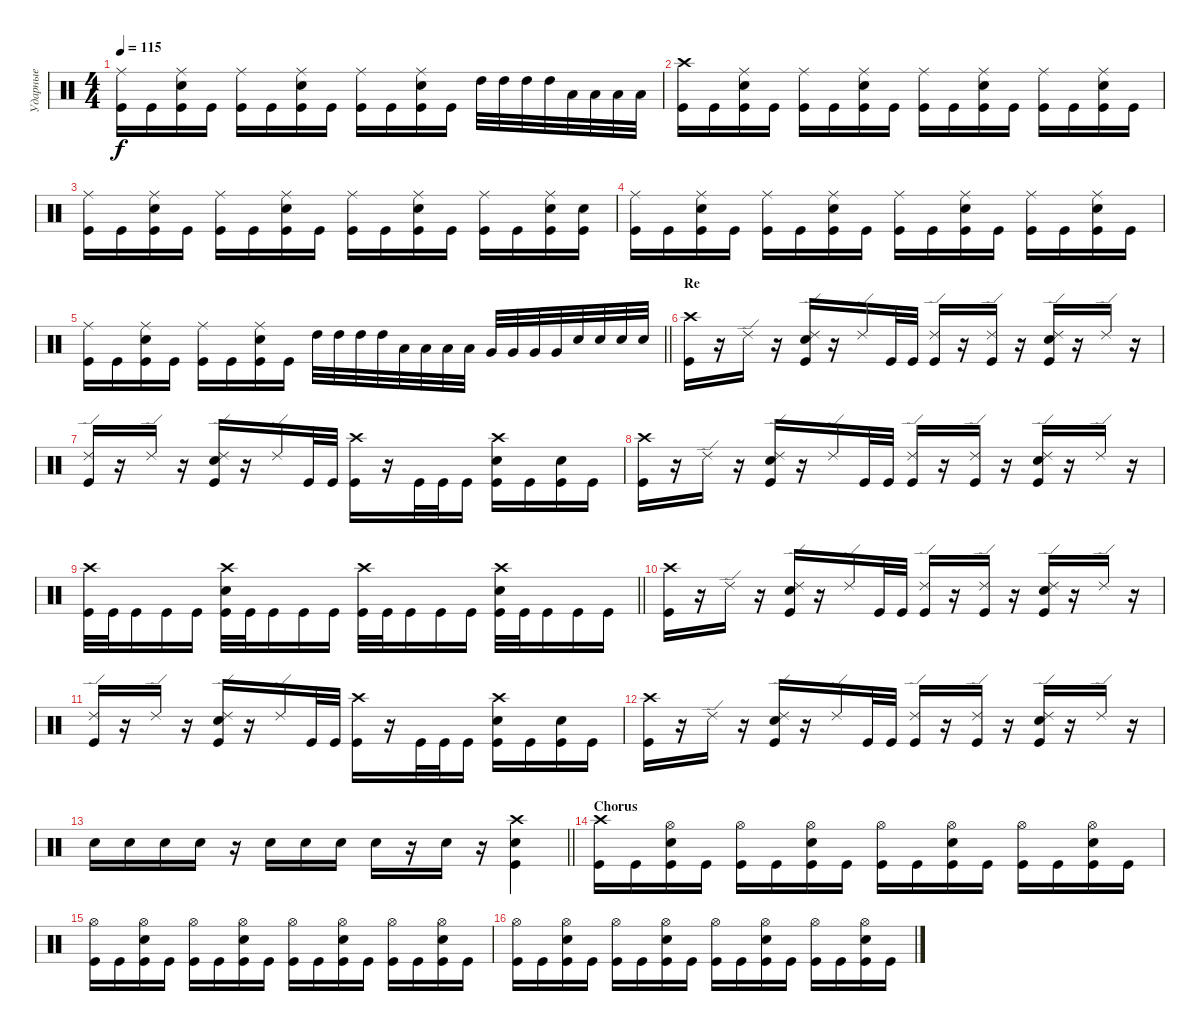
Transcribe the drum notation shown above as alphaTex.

\track ("Ударные" "Ударные") {instrument percussion}
\staff {score}
\articulation defaults
\ts (4 4)
\tempo 115
\clef neutral
\ks c
("Ride (middle)" "Kick (hit)").16{dy f} "Kick (hit)".16 ("Ride (middle)" "Snare (hit) 2" "Kick (hit)").16 "Kick (hit)".16 ("Ride (middle)" "Kick (hit)").16 "Kick (hit)".16 ("Ride (middle)" "Snare (hit) 2" "Kick (hit)").16 "Kick (hit)".16 ("Ride (middle)" "Kick (hit)").16 "Kick (hit)".16 ("Ride (middle)" "Snare (hit) 2" "Kick (hit)").16 "Kick (hit)".16 "High Tom (hit)".32 "High Tom (hit)".32 "High Tom (hit)".32 "High Tom (hit)".32 "Low Tom (hit)".32 "Low Tom (hit)".32 "Low Tom (hit)".32 "Low Tom (hit)".32 |
("Crash high (hit)" "Kick (hit)").16 "Kick (hit)".16 ("Ride (middle)" "Snare (hit) 2" "Kick (hit)").16 "Kick (hit)".16 ("Ride (middle)" "Kick (hit)").16 "Kick (hit)".16 ("Ride (middle)" "Snare (hit) 2" "Kick (hit)").16 "Kick (hit)".16 ("Ride (middle)" "Kick (hit)").16 "Kick (hit)".16 ("Ride (middle)" "Snare (hit) 2" "Kick (hit)").16 "Kick (hit)".16 ("Ride (middle)" "Kick (hit)").16 "Kick (hit)".16 ("Ride (middle)" "Snare (hit) 2" "Kick (hit)").16 "Kick (hit)".16 |
("Ride (middle)" "Kick (hit)").16 "Kick (hit)".16 ("Ride (middle)" "Snare (hit) 2" "Kick (hit)").16 "Kick (hit)".16 ("Ride (middle)" "Kick (hit)").16 "Kick (hit)".16 ("Ride (middle)" "Snare (hit) 2" "Kick (hit)").16 "Kick (hit)".16 ("Ride (middle)" "Kick (hit)").16 "Kick (hit)".16 ("Ride (middle)" "Snare (hit) 2" "Kick (hit)").16 "Kick (hit)".16 ("Ride (middle)" "Kick (hit)").16 "Kick (hit)".16 ("Ride (middle)" "Snare (hit) 2" "Kick (hit)").16 ("Snare (hit) 2" "Kick (hit)").16 |
("Ride (middle)" "Kick (hit)").16 "Kick (hit)".16 ("Ride (middle)" "Snare (hit) 2" "Kick (hit)").16 "Kick (hit)".16 ("Ride (middle)" "Kick (hit)").16 "Kick (hit)".16 ("Ride (middle)" "Snare (hit) 2" "Kick (hit)").16 "Kick (hit)".16 ("Ride (middle)" "Kick (hit)").16 "Kick (hit)".16 ("Ride (middle)" "Snare (hit) 2" "Kick (hit)").16 "Kick (hit)".16 ("Ride (middle)" "Kick (hit)").16 "Kick (hit)".16 ("Ride (middle)" "Snare (hit) 2" "Kick (hit)").16 "Kick (hit)".16 |
\barLineRight lightlight
("Ride (middle)" "Kick (hit)").16 "Kick (hit)".16 ("Ride (middle)" "Snare (hit) 2" "Kick (hit)").16 "Kick (hit)".16 ("Ride (middle)" "Kick (hit)").16 "Kick (hit)".16 ("Ride (middle)" "Snare (hit) 2" "Kick (hit)").16 "Kick (hit)".16 "High Tom (hit)".32 "High Tom (hit)".32 "High Tom (hit)".32 "High Tom (hit)".32 "Low Tom (hit)".32 "Low Tom (hit)".32 "Low Tom (hit)".32 "Low Tom (hit)".32 "Very Low Tom (hit)".32 "Very Low Tom (hit)".32 "Very Low Tom (hit)".32 "Very Low Tom (hit)".32 "Snare (hit) 2".32 "Snare (hit) 2".32 "Snare (hit) 2".32 "Snare (hit) 2".32 |
\section ("" "Re")
("Crash high (hit)" "Kick (hit)").16 r.16 "Ride (edge) 2".16 r.16 ("Ride (edge) 2" "Snare (hit) 2" "Kick (hit)").16 r.16 "Ride (edge) 2".16 "Kick (hit)".32 "Kick (hit)".32 ("Ride (edge) 2" "Kick (hit)").16 r.16 ("Ride (edge) 2" "Kick (hit)").16 r.16 ("Ride (edge) 2" "Snare (hit) 2" "Kick (hit)").16 r.16 "Ride (edge) 2".16 r.16 |
("Ride (edge) 2" "Kick (hit)").16 r.16 "Ride (edge) 2".16 r.16 ("Ride (edge) 2" "Snare (hit) 2" "Kick (hit)").16 r.16 "Ride (edge) 2".16 "Kick (hit)".32 "Kick (hit)".32 ("Crash high (hit)" "Kick (hit)").16 r.16 "Kick (hit)".32 "Kick (hit)".32 "Kick (hit)".16 ("Crash high (hit)" "Snare (hit) 2" "Kick (hit)").16 "Kick (hit)".16 ("Snare (hit) 2" "Kick (hit)").16 "Kick (hit)".16 |
("Crash high (hit)" "Kick (hit)").16 r.16 "Ride (edge) 2".16 r.16 ("Ride (edge) 2" "Snare (hit) 2" "Kick (hit)").16 r.16 "Ride (edge) 2".16 "Kick (hit)".32 "Kick (hit)".32 ("Ride (edge) 2" "Kick (hit)").16 r.16 ("Ride (edge) 2" "Kick (hit)").16 r.16 ("Ride (edge) 2" "Snare (hit) 2" "Kick (hit)").16 r.16 "Ride (edge) 2".16 r.16 |
\barLineRight lightlight
("Crash high (hit)" "Kick (hit)").32 "Kick (hit)".32 "Kick (hit)".16 "Kick (hit)".16 "Kick (hit)".16 ("Crash high (hit)" "Snare (hit) 2" "Kick (hit)").32 "Kick (hit)".32 "Kick (hit)".16 "Kick (hit)".16 "Kick (hit)".16 ("Crash high (hit)" "Kick (hit)").32 "Kick (hit)".32 "Kick (hit)".16 "Kick (hit)".16 "Kick (hit)".16 ("Crash high (hit)" "Snare (hit) 2" "Kick (hit)").32 "Kick (hit)".32 "Kick (hit)".16 "Kick (hit)".16 "Kick (hit)".16 |
("Crash high (hit)" "Kick (hit)").16 r.16 "Ride (edge) 2".16 r.16 ("Ride (edge) 2" "Snare (hit) 2" "Kick (hit)").16 r.16 "Ride (edge) 2".16 "Kick (hit)".32 "Kick (hit)".32 ("Ride (edge) 2" "Kick (hit)").16 r.16 ("Ride (edge) 2" "Kick (hit)").16 r.16 ("Ride (edge) 2" "Snare (hit) 2" "Kick (hit)").16 r.16 "Ride (edge) 2".16 r.16 |
("Ride (edge) 2" "Kick (hit)").16 r.16 "Ride (edge) 2".16 r.16 ("Ride (edge) 2" "Snare (hit) 2" "Kick (hit)").16 r.16 "Ride (edge) 2".16 "Kick (hit)".32 "Kick (hit)".32 ("Crash high (hit)" "Kick (hit)").16 r.16 "Kick (hit)".32 "Kick (hit)".32 "Kick (hit)".16 ("Crash high (hit)" "Snare (hit) 2" "Kick (hit)").16 "Kick (hit)".16 ("Snare (hit) 2" "Kick (hit)").16 "Kick (hit)".16 |
("Crash high (hit)" "Kick (hit)").16 r.16 "Ride (edge) 2".16 r.16 ("Ride (edge) 2" "Snare (hit) 2" "Kick (hit)").16 r.16 "Ride (edge) 2".16 "Kick (hit)".32 "Kick (hit)".32 ("Ride (edge) 2" "Kick (hit)").16 r.16 ("Ride (edge) 2" "Kick (hit)").16 r.16 ("Ride (edge) 2" "Snare (hit) 2" "Kick (hit)").16 r.16 "Ride (edge) 2".16 r.16 |
\barLineRight lightlight "Snare (hit) 2".16 "Snare (hit) 2".16 "Snare (hit) 2".16 "Snare (hit) 2".16
r.16 "Snare (hit) 2".16 "Snare (hit) 2".16 "Snare (hit) 2".16 "Snare (hit) 2".16 r.16 "Snare (hit) 2".16 r.16 ("Crash high (hit)" "Snare (hit) 2" "Kick (hit)").4 |
\section ("" "Chorus")
("Crash high (hit)" "Kick (hit)").16 "Kick (hit)".16 ("Hi-Hat (open)" "Snare (hit) 2" "Kick (hit)").16 "Kick (hit)".16 ("Hi-Hat (open)" "Kick (hit)").16 "Kick (hit)".16 ("Hi-Hat (open)" "Snare (hit) 2" "Kick (hit)").16 "Kick (hit)".16 ("Hi-Hat (open)" "Kick (hit)").16 "Kick (hit)".16 ("Hi-Hat (open)" "Snare (hit) 2" "Kick (hit)").16 "Kick (hit)".16 ("Hi-Hat (open)" "Kick (hit)").16 "Kick (hit)".16 ("Hi-Hat (open)" "Snare (hit) 2" "Kick (hit)").16 "Kick (hit)".16 |
("Hi-Hat (open)" "Kick (hit)").16 "Kick (hit)".16 ("Hi-Hat (open)" "Snare (hit) 2" "Kick (hit)").16 "Kick (hit)".16 ("Hi-Hat (open)" "Kick (hit)").16 "Kick (hit)".16 ("Hi-Hat (open)" "Snare (hit) 2" "Kick (hit)").16 "Kick (hit)".16 ("Hi-Hat (open)" "Kick (hit)").16 "Kick (hit)".16 ("Hi-Hat (open)" "Snare (hit) 2" "Kick (hit)").16 "Kick (hit)".16 ("Hi-Hat (open)" "Kick (hit)").16 "Kick (hit)".16 ("Hi-Hat (open)" "Snare (hit) 2" "Kick (hit)").16 "Kick (hit)".16 |
("Hi-Hat (open)" "Kick (hit)").16 "Kick (hit)".16 ("Hi-Hat (open)" "Snare (hit) 2" "Kick (hit)").16 "Kick (hit)".16 ("Hi-Hat (open)" "Kick (hit)").16 "Kick (hit)".16 ("Hi-Hat (open)" "Snare (hit) 2" "Kick (hit)").16 "Kick (hit)".16 ("Hi-Hat (open)" "Kick (hit)").16 "Kick (hit)".16 ("Hi-Hat (open)" "Snare (hit) 2" "Kick (hit)").16 "Kick (hit)".16 ("Hi-Hat (open)" "Kick (hit)").16 "Kick (hit)".16 ("Hi-Hat (open)" "Snare (hit) 2" "Kick (hit)").16 "Kick (hit)".16
